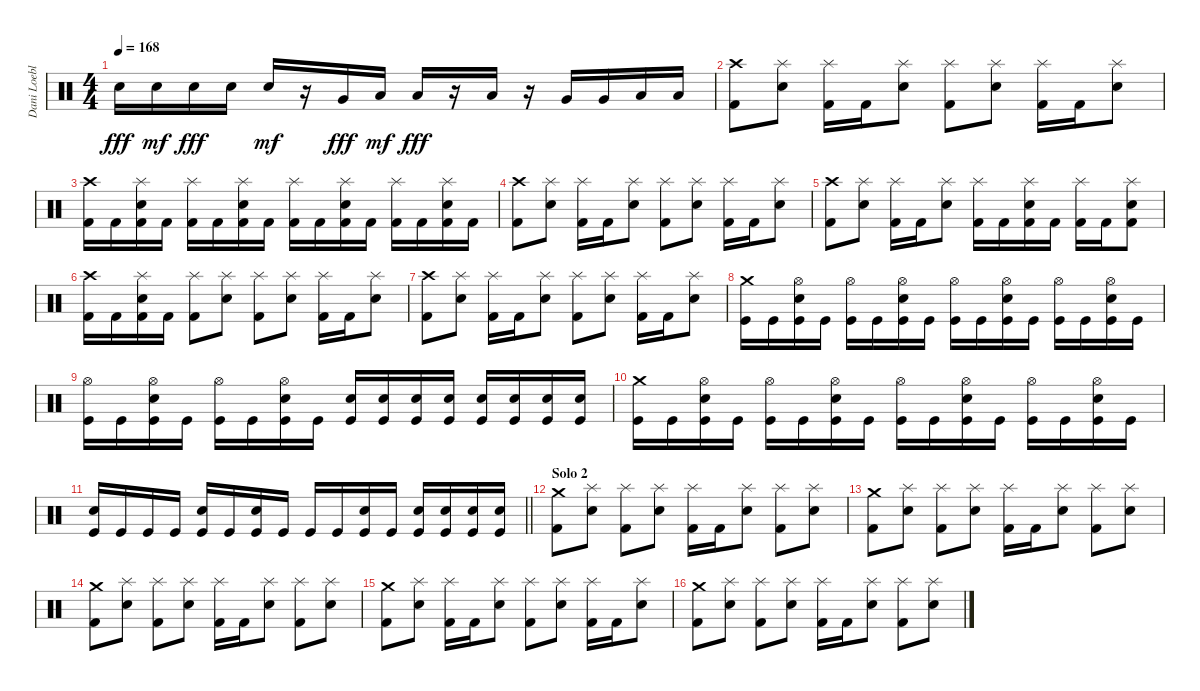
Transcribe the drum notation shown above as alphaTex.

\track ("Dani Loeble" "Dani Loebl") {instrument percussion}
\staff {score}
\articulation defaults
\ts (4 4)
\tempo 168
\clef neutral
\ks c "Electric Snare (hit)".16{dy fff} "Electric Snare (hit)".16{dy mf} "Electric Snare (hit)".16{dy fff} "Electric Snare (hit)".16 "Electric Snare (hit)".16{dy mf}
r.16 "Very Low Tom (hit)".16{dy fff} "Low Tom (hit)".16{dy mf} "Low Tom (hit)".16{dy fff} r.16 "Low Tom (hit)".16 r.16 "Very Low Tom (hit)".16 "Very Low Tom (hit)".16 "Low Floor Tom (hit)".16 "Low Floor Tom (hit)".16 |
("Crash high (hit)" "Kick (hit) 2").8 ("Splash (hit)" "Electric Snare (hit)").8 ("Splash (hit)" "Kick (hit) 2").16 "Kick (hit) 2".16 ("Splash (hit)" "Electric Snare (hit)").8 ("Splash (hit)" "Kick (hit) 2").8 ("Splash (hit)" "Electric Snare (hit)").8 ("Splash (hit)" "Kick (hit) 2").16 "Kick (hit) 2".16 ("Splash (hit)" "Electric Snare (hit)").8 |
("Crash high (hit)" "Kick (hit) 2").16 "Kick (hit) 2".16 ("Splash (hit)" "Electric Snare (hit)" "Kick (hit) 2").16 "Kick (hit) 2".16 ("Splash (hit)" "Kick (hit) 2").16 "Kick (hit) 2".16 ("Splash (hit)" "Electric Snare (hit)" "Kick (hit) 2").16 "Kick (hit) 2".16 ("Splash (hit)" "Kick (hit) 2").16 "Kick (hit) 2".16 ("Splash (hit)" "Electric Snare (hit)" "Kick (hit) 2").16 "Kick (hit) 2".16 ("Splash (hit)" "Kick (hit) 2").16 "Kick (hit) 2".16 ("Splash (hit)" "Electric Snare (hit)" "Kick (hit) 2").16 "Kick (hit) 2".16 |
("Crash high (hit)" "Kick (hit) 2").8 ("Splash (hit)" "Electric Snare (hit)").8 ("Splash (hit)" "Kick (hit) 2").16 "Kick (hit) 2".16 ("Splash (hit)" "Electric Snare (hit)").8 ("Splash (hit)" "Kick (hit) 2").8 ("Splash (hit)" "Electric Snare (hit)").8 ("Splash (hit)" "Kick (hit) 2").16 "Kick (hit) 2".16 ("Splash (hit)" "Electric Snare (hit)").8 |
("Crash high (hit)" "Kick (hit) 2").8 ("Splash (hit)" "Electric Snare (hit)").8 ("Splash (hit)" "Kick (hit) 2").16 "Kick (hit) 2".16 ("Splash (hit)" "Electric Snare (hit)").8 ("Splash (hit)" "Kick (hit) 2").16 "Kick (hit) 2".16 ("Splash (hit)" "Electric Snare (hit)" "Kick (hit) 2").16 "Kick (hit) 2".16 ("Splash (hit)" "Kick (hit) 2").16 "Kick (hit) 2".16 ("Splash (hit)" "Electric Snare (hit)" "Kick (hit) 2").8 |
("Crash high (hit)" "Kick (hit) 2").16 "Kick (hit) 2".16 ("Splash (hit)" "Electric Snare (hit)" "Kick (hit) 2").16 "Kick (hit) 2".16 ("Splash (hit)" "Kick (hit) 2").8 ("Splash (hit)" "Electric Snare (hit)").8 ("Splash (hit)" "Kick (hit) 2").8 ("Splash (hit)" "Electric Snare (hit)").8 ("Splash (hit)" "Kick (hit) 2").16 "Kick (hit) 2".16 ("Splash (hit)" "Electric Snare (hit)").8 |
("Crash high (hit)" "Kick (hit) 2").8 ("Splash (hit)" "Electric Snare (hit)").8 ("Splash (hit)" "Kick (hit) 2").16 "Kick (hit) 2".16 ("Splash (hit)" "Electric Snare (hit)").8 ("Splash (hit)" "Kick (hit) 2").8 ("Splash (hit)" "Electric Snare (hit)").8 ("Splash (hit)" "Kick (hit) 2").16 "Kick (hit) 2".16 ("Splash (hit)" "Electric Snare (hit)").8 |
("Crash medium (hit)" "Kick (hit)").16 "Kick (hit)".16 ("Hi-Hat (open)" "Electric Snare (hit)" "Kick (hit)").16 "Kick (hit)".16 ("Hi-Hat (open)" "Kick (hit)").16 "Kick (hit)".16 ("Hi-Hat (open)" "Electric Snare (hit)" "Kick (hit)").16 "Kick (hit)".16 ("Hi-Hat (open)" "Kick (hit)").16 "Kick (hit)".16 ("Hi-Hat (open)" "Electric Snare (hit)" "Kick (hit)").16 "Kick (hit)".16 ("Hi-Hat (open)" "Kick (hit)").16 "Kick (hit)".16 ("Hi-Hat (open)" "Electric Snare (hit)" "Kick (hit)").16 "Kick (hit)".16 |
("Hi-Hat (open)" "Kick (hit)").16 "Kick (hit)".16 ("Hi-Hat (open)" "Electric Snare (hit)" "Kick (hit)").16 "Kick (hit)".16 ("Hi-Hat (open)" "Kick (hit)").16 "Kick (hit)".16 ("Hi-Hat (open)" "Electric Snare (hit)" "Kick (hit)").16 "Kick (hit)".16 ("Electric Snare (hit)" "Kick (hit)").16 ("Electric Snare (hit)" "Kick (hit)").16 ("Electric Snare (hit)" "Kick (hit)").16 ("Electric Snare (hit)" "Kick (hit)").16 ("Electric Snare (hit)" "Kick (hit)").16 ("Electric Snare (hit)" "Kick (hit)").16 ("Electric Snare (hit)" "Kick (hit)").16 ("Electric Snare (hit)" "Kick (hit)").16 |
("Crash medium (hit)" "Kick (hit)").16 "Kick (hit)".16 ("Hi-Hat (open)" "Electric Snare (hit)" "Kick (hit)").16 "Kick (hit)".16 ("Hi-Hat (open)" "Kick (hit)").16 "Kick (hit)".16 ("Hi-Hat (open)" "Electric Snare (hit)" "Kick (hit)").16 "Kick (hit)".16 ("Hi-Hat (open)" "Kick (hit)").16 "Kick (hit)".16 ("Hi-Hat (open)" "Electric Snare (hit)" "Kick (hit)").16 "Kick (hit)".16 ("Hi-Hat (open)" "Kick (hit)").16 "Kick (hit)".16 ("Hi-Hat (open)" "Electric Snare (hit)" "Kick (hit)").16 "Kick (hit)".16 |
\barLineRight lightlight
("Electric Snare (hit)" "Kick (hit)").16 "Kick (hit)".16 "Kick (hit)".16 "Kick (hit)".16 ("Electric Snare (hit)" "Kick (hit)").16 "Kick (hit)".16 ("Electric Snare (hit)" "Kick (hit)").16 "Kick (hit)".16 "Kick (hit)".16 "Kick (hit)".16 ("Electric Snare (hit)" "Kick (hit)").16 "Kick (hit)".16 ("Electric Snare (hit)" "Kick (hit)").16 ("Electric Snare (hit)" "Kick (hit)").16 ("Electric Snare (hit)" "Kick (hit)").16 ("Electric Snare (hit)" "Kick (hit)").16 |
\section ("" "Solo 2")
("Crash medium (hit)" "Kick (hit) 2").8 ("Splash (hit)" "Electric Snare (hit)").8 ("Splash (hit)" "Kick (hit) 2").8 ("Splash (hit)" "Electric Snare (hit)").8 ("Splash (hit)" "Kick (hit) 2").16 "Kick (hit) 2".16 ("Splash (hit)" "Electric Snare (hit)").8 ("Splash (hit)" "Kick (hit) 2").8 ("Splash (hit)" "Electric Snare (hit)").8 |
("Crash medium (hit)" "Kick (hit) 2").8 ("Splash (hit)" "Electric Snare (hit)").8 ("Splash (hit)" "Kick (hit) 2").8 ("Splash (hit)" "Electric Snare (hit)").8 ("Splash (hit)" "Kick (hit) 2").16 "Kick (hit) 2".16 ("Splash (hit)" "Electric Snare (hit)").8 ("Splash (hit)" "Kick (hit) 2").8 ("Splash (hit)" "Electric Snare (hit)").8 |
("Crash medium (hit)" "Kick (hit) 2").8 ("Splash (hit)" "Electric Snare (hit)").8 ("Splash (hit)" "Kick (hit) 2").8 ("Splash (hit)" "Electric Snare (hit)").8 ("Splash (hit)" "Kick (hit) 2").16 "Kick (hit) 2".16 ("Splash (hit)" "Electric Snare (hit)").8 ("Splash (hit)" "Kick (hit) 2").8 ("Splash (hit)" "Electric Snare (hit)").8 |
("Crash medium (hit)" "Kick (hit) 2").8 ("Splash (hit)" "Electric Snare (hit)").8 ("Splash (hit)" "Kick (hit) 2").16 "Kick (hit) 2".16 ("Splash (hit)" "Electric Snare (hit)").8 ("Splash (hit)" "Kick (hit) 2").8 ("Splash (hit)" "Electric Snare (hit)").8 ("Splash (hit)" "Kick (hit) 2").16 "Kick (hit) 2".16 ("Splash (hit)" "Electric Snare (hit)").8 |
("Crash medium (hit)" "Kick (hit) 2").8 ("Splash (hit)" "Electric Snare (hit)").8 ("Splash (hit)" "Kick (hit) 2").8 ("Splash (hit)" "Electric Snare (hit)").8 ("Splash (hit)" "Kick (hit) 2").16 "Kick (hit) 2".16 ("Splash (hit)" "Electric Snare (hit)").8 ("Splash (hit)" "Kick (hit) 2").8 ("Splash (hit)" "Electric Snare (hit)").8
